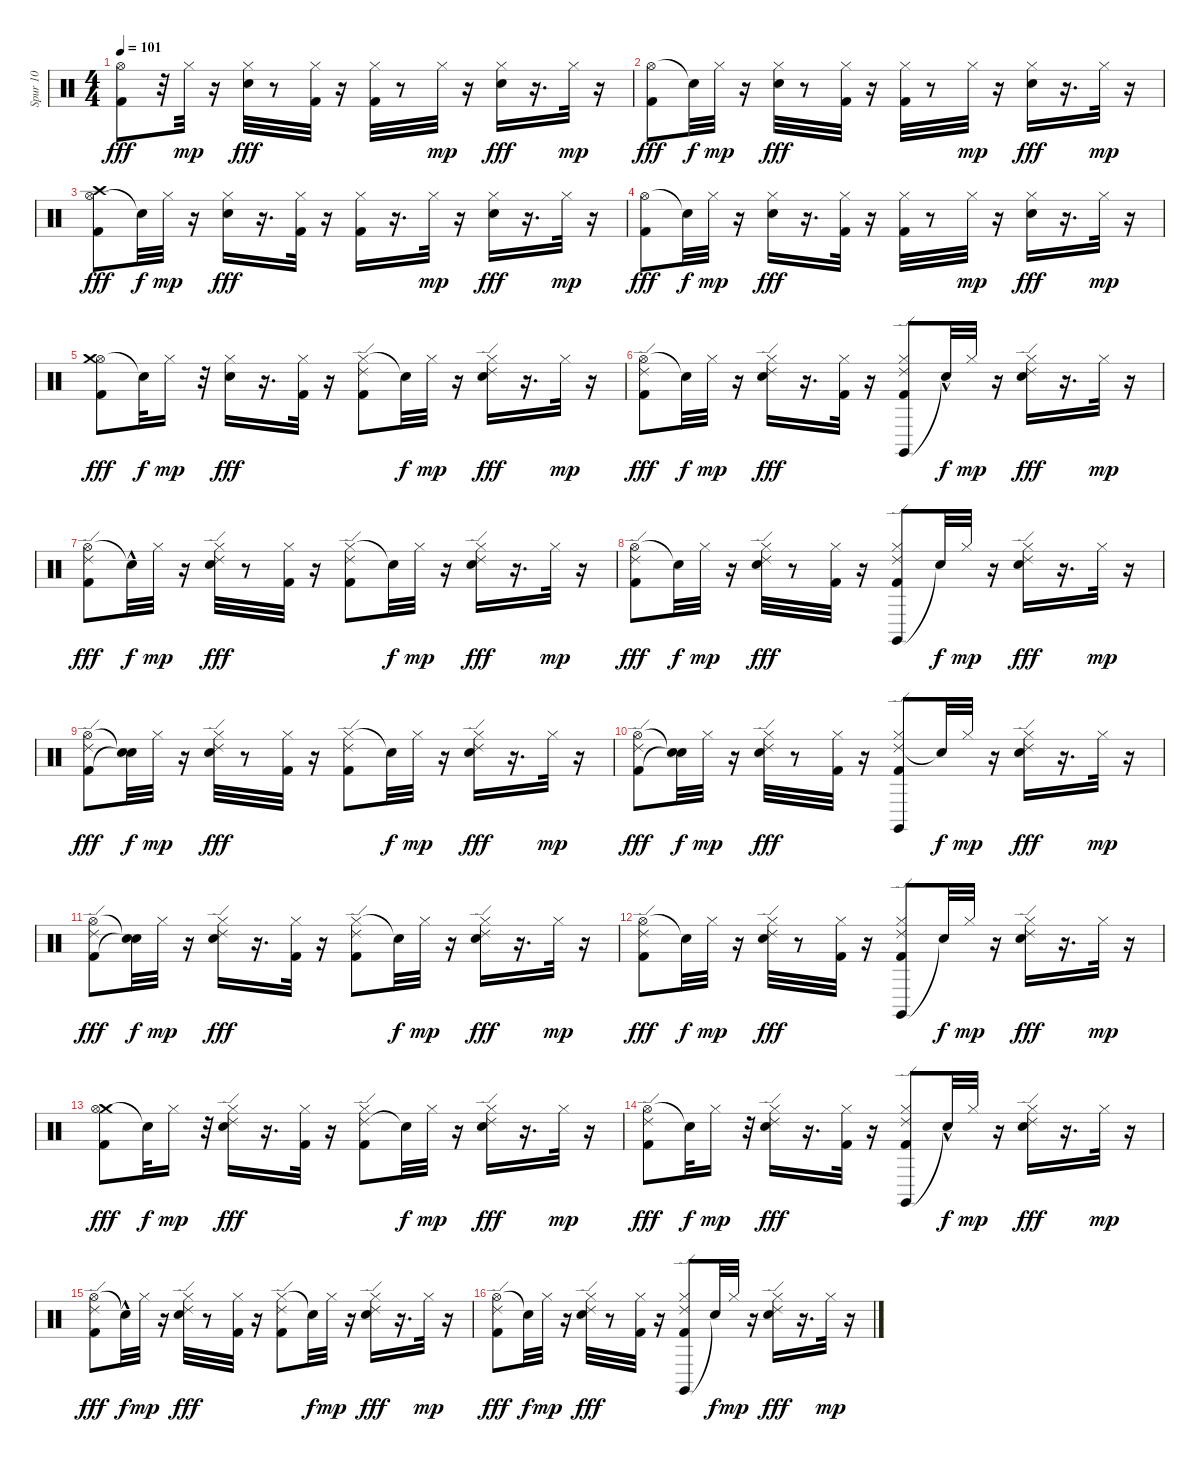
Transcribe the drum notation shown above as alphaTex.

\track ("Spur 10" "Spur 10") {instrument percussion}
\staff {score}
\articulation defaults
\ts (4 4)
\tempo 101
\clef neutral
\ks c
("Hi-Hat (open)" "Kick (hit) 2").8{dy fff} r.32 "Hi-Hat (closed)".32{dy mp} r.16 ("Hi-Hat (closed)" "Snare (hit) 2").32{dy fff} r.8 ("Hi-Hat (closed)" "Kick (hit) 2").32 r.16 ("Hi-Hat (closed)" "Kick (hit) 2").32 r.8 "Hi-Hat (closed)".32{dy mp} r.16 ("Hi-Hat (closed)" "Snare (hit) 2").16{dy fff} r.16{d} "Hi-Hat (closed)".32{dy mp} r.16 |
("Hi-Hat (open)" "Kick (hit) 2").8{dy fff} "Snare (hit)"{t}.32{dy f} "Hi-Hat (closed)".32{dy mp} r.16 ("Hi-Hat (closed)" "Snare (hit) 2").32{dy fff} r.8 ("Hi-Hat (closed)" "Kick (hit) 2").32 r.16 ("Hi-Hat (closed)" "Kick (hit) 2").32 r.8 "Hi-Hat (closed)".32{dy mp} r.16 ("Hi-Hat (closed)" "Snare (hit) 2").16{dy fff} r.16{d} "Hi-Hat (closed)".32{dy mp} r.16 |
("Hi-Hat (open)" "Kick (hit) 2" "Crash high (hit)").8{dy fff} "Snare (hit)"{t}.32{dy f} "Hi-Hat (closed)".32{dy mp} r.16 ("Hi-Hat (closed)" "Snare (hit) 2").16{dy fff} r.16{d} ("Hi-Hat (closed)" "Kick (hit) 2").32 r.16 ("Hi-Hat (closed)" "Kick (hit) 2").16 r.16{d} "Hi-Hat (closed)".32{dy mp} r.16 ("Hi-Hat (closed)" "Snare (hit) 2").16{dy fff} r.16{d} "Hi-Hat (closed)".32{dy mp} r.16 |
("Hi-Hat (open)" "Kick (hit) 2").8{dy fff} "Snare (hit)"{t}.32{dy f} "Hi-Hat (closed)".32{dy mp} r.16 ("Hi-Hat (closed)" "Snare (hit) 2").16{dy fff} r.16{d} ("Hi-Hat (closed)" "Kick (hit) 2").32 r.16 ("Hi-Hat (closed)" "Kick (hit) 2").32 r.8 "Hi-Hat (closed)".32{dy mp} r.16 ("Hi-Hat (closed)" "Snare (hit) 2").16{dy fff} r.16{d} "Hi-Hat (closed)".32{dy mp} r.16 |
("Hi-Hat (open)" "Kick (hit) 2" "Crash medium (hit)").8{dy fff} "Snare (hit)"{t}.32{dy f} "Hi-Hat (closed)".16{dy mp} r.32 ("Hi-Hat (closed)" "Snare (hit) 2").16{dy fff} r.16{d} ("Hi-Hat (closed)" "Kick (hit) 2").32 r.16 ("Hi-Hat (closed)" "Kick (hit) 2" "Ride (edge) 2").8 "Snare (hit)"{t}.32{dy f} "Hi-Hat (closed)".32{dy mp} r.16 ("Hi-Hat (closed)" "Snare (hit) 2" "Ride (edge) 2").16{dy fff} r.16{d} "Hi-Hat (closed)".32{dy mp} r.16 |
("Hi-Hat (open)" "Kick (hit) 2" "Ride (edge) 2").8{dy fff} "Snare (hit)"{t}.32{dy f} "Hi-Hat (closed)".32{dy mp} r.16 ("Hi-Hat (closed)" "Snare (hit) 2" "Ride (edge) 2").16{dy fff} r.16{d} ("Hi-Hat (closed)" "Kick (hit) 2").32 r.16 ("Claves (hit)" "Hi-Hat (closed)" "Kick (hit) 2" "Ride (edge) 2").8 "Snare (hit)"{hac t}.32{dy f} "Hi-Hat (closed)".32{dy mp} r.16 ("Hi-Hat (closed)" "Snare (hit) 2" "Ride (edge) 2").16{dy fff} r.16{d} "Hi-Hat (closed)".32{dy mp} r.16 |
("Hi-Hat (open)" "Kick (hit) 2" "Ride (edge) 2").8{dy fff} "Snare (hit)"{hac t}.32{dy f} "Hi-Hat (closed)".32{dy mp} r.16 ("Hi-Hat (closed)" "Snare (hit) 2" "Ride (edge) 2").32{dy fff} r.8 ("Hi-Hat (closed)" "Kick (hit) 2").32 r.16 ("Hi-Hat (closed)" "Kick (hit) 2" "Ride (edge) 2").8 "Snare (hit)"{t}.32{dy f} "Hi-Hat (closed)".32{dy mp} r.16 ("Hi-Hat (closed)" "Snare (hit) 2" "Ride (edge) 2").16{dy fff} r.16{d} "Hi-Hat (closed)".32{dy mp} r.16 |
("Hi-Hat (open)" "Kick (hit) 2" "Ride (edge) 2").8{dy fff} "Snare (hit)"{t}.32{dy f} "Hi-Hat (closed)".32{dy mp} r.16 ("Hi-Hat (closed)" "Snare (hit) 2" "Ride (edge) 2").32{dy fff} r.8 ("Hi-Hat (closed)" "Kick (hit) 2").32 r.16 ("Claves (hit)" "Hi-Hat (closed)" "Kick (hit) 2" "Ride (edge) 2").8 "Snare (hit)"{t}.32{dy f} "Hi-Hat (closed)".32{dy mp} r.16 ("Hi-Hat (closed)" "Snare (hit) 2" "Ride (edge) 2").16{dy fff} r.16{d} "Hi-Hat (closed)".32{dy mp} r.16 |
("Hi-Hat (open)" "Kick (hit) 2" "Ride (edge) 2").8{dy fff} ("Snare (hit)"{t} "Snare (hit)"{t}).32{dy f} "Hi-Hat (closed)".32{dy mp} r.16 ("Hi-Hat (closed)" "Snare (hit) 2" "Ride (edge) 2").32{dy fff} r.8 ("Hi-Hat (closed)" "Kick (hit) 2").32 r.16 ("Hi-Hat (closed)" "Kick (hit) 2" "Ride (edge) 2").8 "Snare (hit)"{t}.32{dy f} "Hi-Hat (closed)".32{dy mp} r.16 ("Hi-Hat (closed)" "Snare (hit) 2" "Ride (edge) 2").16{dy fff} r.16{d} "Hi-Hat (closed)".32{dy mp} r.16 |
("Hi-Hat (open)" "Kick (hit) 2" "Ride (edge) 2").8{dy fff} ("Snare (hit)"{t} "Snare (hit)"{t}).32{dy f} "Hi-Hat (closed)".32{dy mp} r.16 ("Hi-Hat (closed)" "Snare (hit) 2" "Ride (edge) 2").32{dy fff} r.8 ("Hi-Hat (closed)" "Kick (hit) 2").32 r.16 ("Ride (edge) 2" "Claves (hit)" "Hi-Hat (closed)" "Kick (hit) 2").8 "Snare (hit)"{t}.32{dy f} "Hi-Hat (closed)".32{dy mp} r.16 ("Hi-Hat (closed)" "Snare (hit) 2" "Ride (edge) 2").16{dy fff} r.16{d} "Hi-Hat (closed)".32{dy mp} r.16 |
("Hi-Hat (open)" "Kick (hit) 2" "Ride (edge) 2").8{dy fff} ("Snare (hit)"{t} "Snare (hit)"{t}).32{dy f} "Hi-Hat (closed)".32{dy mp} r.16 ("Hi-Hat (closed)" "Snare (hit) 2" "Ride (edge) 2").16{dy fff} r.16{d} ("Hi-Hat (closed)" "Kick (hit) 2").32 r.16 ("Hi-Hat (closed)" "Kick (hit) 2" "Ride (edge) 2").8 "Snare (hit)"{t}.32{dy f} "Hi-Hat (closed)".32{dy mp} r.16 ("Hi-Hat (closed)" "Snare (hit) 2" "Ride (edge) 2").16{dy fff} r.16{d} "Hi-Hat (closed)".32{dy mp} r.16 |
("Hi-Hat (open)" "Kick (hit) 2" "Ride (edge) 2").8{dy fff} "Snare (hit)"{t}.32{dy f} "Hi-Hat (closed)".32{dy mp} r.16 ("Hi-Hat (closed)" "Snare (hit) 2" "Ride (edge) 2").32{dy fff} r.8 ("Hi-Hat (closed)" "Kick (hit) 2").32 r.16 ("Claves (hit)" "Hi-Hat (closed)" "Kick (hit) 2" "Ride (edge) 2").8 "Snare (hit)"{t}.32{dy f} "Hi-Hat (closed)".32{dy mp} r.16 ("Hi-Hat (closed)" "Snare (hit) 2" "Ride (edge) 2").16{dy fff} r.16{d} "Hi-Hat (closed)".32{dy mp} r.16 |
("Crash medium (hit)" "Hi-Hat (open)" "Kick (hit) 2").8{dy fff} "Snare (hit)"{t}.32{dy f} "Hi-Hat (closed)".16{dy mp} r.32 ("Hi-Hat (closed)" "Snare (hit) 2" "Ride (edge) 2").16{dy fff} r.16{d} ("Hi-Hat (closed)" "Kick (hit) 2").32 r.16 ("Ride (edge) 2" "Hi-Hat (closed)" "Kick (hit) 2").8 "Snare (hit)"{t}.32{dy f} "Hi-Hat (closed)".32{dy mp} r.16 ("Hi-Hat (closed)" "Snare (hit) 2" "Ride (edge) 2").16{dy fff} r.16{d} "Hi-Hat (closed)".32{dy mp} r.16 |
("Hi-Hat (open)" "Kick (hit) 2" "Ride (edge) 2").8{dy fff} "Snare (hit)"{t}.32{dy f} "Hi-Hat (closed)".16{dy mp} r.32 ("Hi-Hat (closed)" "Snare (hit) 2" "Ride (edge) 2").16{dy fff} r.16{d} ("Hi-Hat (closed)" "Kick (hit) 2").32 r.16 ("Claves (hit)" "Hi-Hat (closed)" "Kick (hit) 2" "Ride (edge) 2").8 "Snare (hit)"{hac t}.32{dy f} "Hi-Hat (closed)".32{dy mp} r.16 ("Hi-Hat (closed)" "Snare (hit) 2" "Ride (edge) 2").16{dy fff} r.16{d} "Hi-Hat (closed)".32{dy mp} r.16 |
("Hi-Hat (open)" "Kick (hit) 2" "Ride (edge) 2").8{dy fff} "Snare (hit)"{hac t}.32{dy f} "Hi-Hat (closed)".32{dy mp} r.16 ("Hi-Hat (closed)" "Snare (hit) 2" "Ride (edge) 2").32{dy fff} r.8 ("Hi-Hat (closed)" "Kick (hit) 2").32 r.16 ("Hi-Hat (closed)" "Kick (hit) 2" "Ride (edge) 2").8 "Snare (hit)"{t}.32{dy f} "Hi-Hat (closed)".32{dy mp} r.16 ("Hi-Hat (closed)" "Snare (hit) 2" "Ride (edge) 2").16{dy fff} r.16{d} "Hi-Hat (closed)".32{dy mp} r.16 |
("Hi-Hat (open)" "Kick (hit) 2" "Ride (edge) 2").8{dy fff} "Snare (hit)"{t}.32{dy f} "Hi-Hat (closed)".32{dy mp} r.16 ("Hi-Hat (closed)" "Snare (hit) 2" "Ride (edge) 2").32{dy fff} r.8 ("Hi-Hat (closed)" "Kick (hit) 2").32 r.16 ("Claves (hit)" "Hi-Hat (closed)" "Kick (hit) 2" "Ride (edge) 2").8 "Snare (hit)"{t}.32{dy f} "Hi-Hat (closed)".32{dy mp} r.16 ("Hi-Hat (closed)" "Snare (hit) 2" "Ride (edge) 2").16{dy fff} r.16{d} "Hi-Hat (closed)".32{dy mp} r.16
